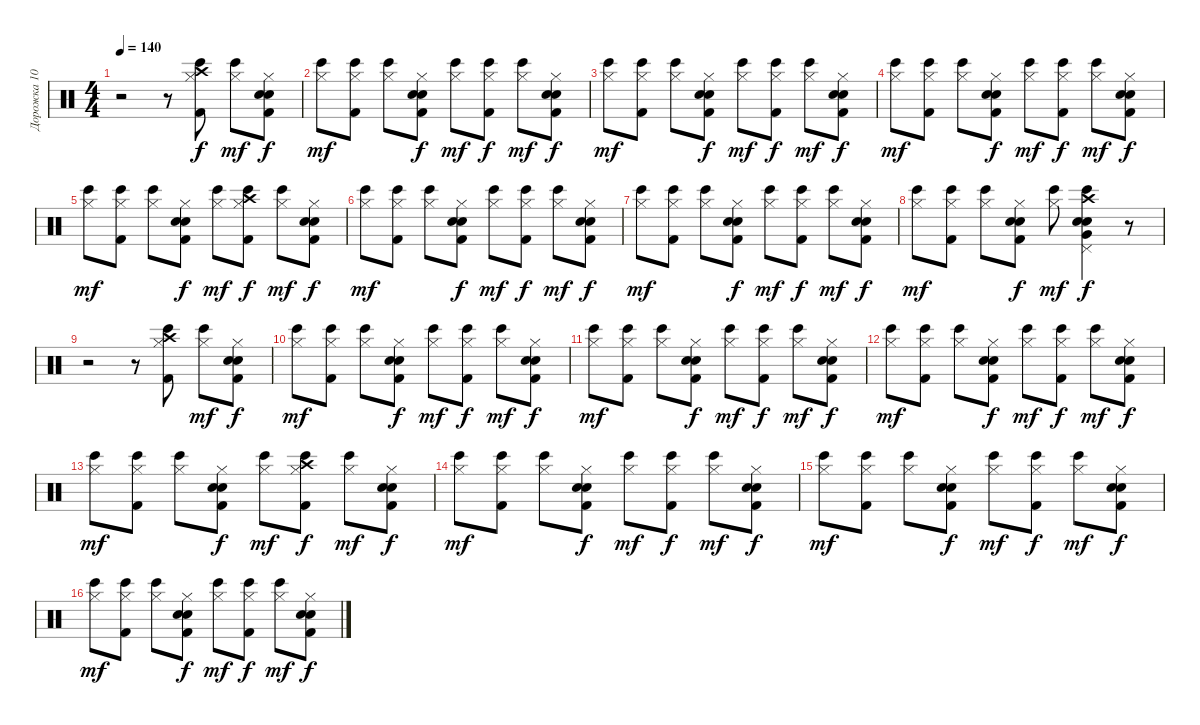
\track ("Дорожка 10" "Дорожка 10") {instrument percussion}
\staff {score}
\articulation defaults
\ts (4 4)
\tempo 140
\clef neutral
\ks c
r.2{dy f} r.8 ("Bongo High (hit)" "Hi-Hat (closed)" "Crash high (hit)" "Kick (hit) 2").8 ("Bongo High (hit)" "Hi-Hat (closed)").8{dy mf} ("Hi-Hat (closed)" "Snare (hit) 2" "Hand Clap (hit)" "Kick (hit) 2").8{dy f} |
("Hi-Hat (closed)" "Bongo High (hit)").8{dy mf} ("Hi-Hat (closed)" "Kick (hit) 2" "Bongo High (hit)").8 ("Hi-Hat (closed)" "Bongo High (hit)").8 ("Hi-Hat (closed)" "Hand Clap (hit)" "Kick (hit) 2" "Snare (hit) 2").8{dy f} ("Bongo High (hit)" "Hi-Hat (closed)").8{dy mf} ("Bongo High (hit)" "Kick (hit) 2" "Hi-Hat (closed)").8{dy f} ("Bongo High (hit)" "Hi-Hat (closed)").8{dy mf} ("Hand Clap (hit)" "Snare (hit) 2" "Kick (hit) 2" "Hi-Hat (closed)").8{dy f} |
("Hi-Hat (closed)" "Bongo High (hit)").8{dy mf} ("Kick (hit) 2" "Hi-Hat (closed)" "Bongo High (hit)").8 ("Hi-Hat (closed)" "Bongo High (hit)").8 ("Hand Clap (hit)" "Kick (hit) 2" "Snare (hit) 2" "Hi-Hat (closed)").8{dy f} ("Bongo High (hit)" "Hi-Hat (closed)").8{dy mf} ("Hi-Hat (closed)" "Bongo High (hit)" "Kick (hit) 2").8{dy f} ("Bongo High (hit)" "Hi-Hat (closed)").8{dy mf} ("Hi-Hat (closed)" "Hand Clap (hit)" "Snare (hit) 2" "Kick (hit) 2").8{dy f} |
("Hi-Hat (closed)" "Bongo High (hit)").8{dy mf} ("Hi-Hat (closed)" "Kick (hit) 2" "Bongo High (hit)").8 ("Hi-Hat (closed)" "Bongo High (hit)").8 ("Hi-Hat (closed)" "Hand Clap (hit)" "Kick (hit) 2" "Snare (hit) 2").8{dy f} ("Hi-Hat (closed)" "Bongo High (hit)").8{dy mf} ("Kick (hit) 2" "Bongo High (hit)" "Hi-Hat (closed)").8{dy f} ("Bongo High (hit)" "Hi-Hat (closed)").8{dy mf} ("Snare (hit) 2" "Kick (hit) 2" "Hand Clap (hit)" "Hi-Hat (closed)").8{dy f} |
("Hi-Hat (closed)" "Bongo High (hit)").8{dy mf} ("Kick (hit) 2" "Hi-Hat (closed)" "Bongo High (hit)").8 ("Hi-Hat (closed)" "Bongo High (hit)").8 ("Kick (hit) 2" "Snare (hit) 2" "Hand Clap (hit)" "Hi-Hat (closed)").8{dy f} ("Bongo High (hit)" "Hi-Hat (closed)").8{dy mf} ("Crash high (hit)" "Kick (hit) 2" "Bongo High (hit)" "Hi-Hat (closed)").8{dy f} ("Bongo High (hit)" "Hi-Hat (closed)").8{dy mf} ("Snare (hit) 2" "Kick (hit) 2" "Hand Clap (hit)" "Hi-Hat (closed)").8{dy f} |
("Hi-Hat (closed)" "Bongo High (hit)").8{dy mf} ("Kick (hit) 2" "Hi-Hat (closed)" "Bongo High (hit)").8 ("Hi-Hat (closed)" "Bongo High (hit)").8 ("Kick (hit) 2" "Snare (hit) 2" "Hand Clap (hit)" "Hi-Hat (closed)").8{dy f} ("Bongo High (hit)" "Hi-Hat (closed)").8{dy mf} ("Hi-Hat (closed)" "Kick (hit) 2" "Bongo High (hit)").8{dy f} ("Bongo High (hit)" "Hi-Hat (closed)").8{dy mf} ("Hi-Hat (closed)" "Snare (hit) 2" "Kick (hit) 2" "Hand Clap (hit)").8{dy f} |
("Hi-Hat (closed)" "Bongo High (hit)").8{dy mf} ("Hi-Hat (closed)" "Kick (hit) 2" "Bongo High (hit)").8 ("Hi-Hat (closed)" "Bongo High (hit)").8 ("Hi-Hat (closed)" "Kick (hit) 2" "Snare (hit) 2" "Hand Clap (hit)").8{dy f} ("Hi-Hat (closed)" "Bongo High (hit)").8{dy mf} ("Bongo High (hit)" "Kick (hit) 2" "Hi-Hat (closed)").8{dy f} ("Bongo High (hit)" "Hi-Hat (closed)").8{dy mf} ("Hand Clap (hit)" "Snare (hit) 2" "Kick (hit) 2" "Hi-Hat (closed)").8{dy f} |
("Hi-Hat (closed)" "Bongo High (hit)").8{dy mf} ("Kick (hit) 2" "Hi-Hat (closed)" "Bongo High (hit)").8 ("Hi-Hat (closed)" "Bongo High (hit)").8 ("Hand Clap (hit)" "Kick (hit) 2" "Snare (hit) 2" "Hi-Hat (closed)").8{dy f} ("Bongo High (hit)" "Hi-Hat (closed)").8{dy mf} ("Pedal Hi-Hat (hit)" "Very Low Tom (hit)" "Bongo High (hit)" "Crash high (hit)" "Electric Snare (hit)" "Snare (hit) 2").4{dy f} r.8 |
r.2 r.8 ("Bongo High (hit)" "Hi-Hat (closed)" "Crash high (hit)" "Kick (hit) 2").8 ("Bongo High (hit)" "Hi-Hat (closed)").8{dy mf} ("Hi-Hat (closed)" "Snare (hit) 2" "Hand Clap (hit)" "Kick (hit) 2").8{dy f} |
("Hi-Hat (closed)" "Bongo High (hit)").8{dy mf} ("Hi-Hat (closed)" "Kick (hit) 2" "Bongo High (hit)").8 ("Hi-Hat (closed)" "Bongo High (hit)").8 ("Hi-Hat (closed)" "Hand Clap (hit)" "Kick (hit) 2" "Snare (hit) 2").8{dy f} ("Bongo High (hit)" "Hi-Hat (closed)").8{dy mf} ("Kick (hit) 2" "Bongo High (hit)" "Hi-Hat (closed)").8{dy f} ("Bongo High (hit)" "Hi-Hat (closed)").8{dy mf} ("Snare (hit) 2" "Kick (hit) 2" "Hand Clap (hit)" "Hi-Hat (closed)").8{dy f} |
("Hi-Hat (closed)" "Bongo High (hit)").8{dy mf} ("Kick (hit) 2" "Hi-Hat (closed)" "Bongo High (hit)").8 ("Hi-Hat (closed)" "Bongo High (hit)").8 ("Kick (hit) 2" "Snare (hit) 2" "Hand Clap (hit)" "Hi-Hat (closed)").8{dy f} ("Bongo High (hit)" "Hi-Hat (closed)").8{dy mf} ("Kick (hit) 2" "Bongo High (hit)" "Hi-Hat (closed)").8{dy f} ("Bongo High (hit)" "Hi-Hat (closed)").8{dy mf} ("Snare (hit) 2" "Kick (hit) 2" "Hand Clap (hit)" "Hi-Hat (closed)").8{dy f} |
("Hi-Hat (closed)" "Bongo High (hit)").8{dy mf} ("Kick (hit) 2" "Hi-Hat (closed)" "Bongo High (hit)").8 ("Hi-Hat (closed)" "Bongo High (hit)").8 ("Kick (hit) 2" "Snare (hit) 2" "Hand Clap (hit)" "Hi-Hat (closed)").8{dy f} ("Bongo High (hit)" "Hi-Hat (closed)").8{dy mf} ("Hi-Hat (closed)" "Kick (hit) 2" "Bongo High (hit)").8{dy f} ("Bongo High (hit)" "Hi-Hat (closed)").8{dy mf} ("Hi-Hat (closed)" "Snare (hit) 2" "Kick (hit) 2" "Hand Clap (hit)").8{dy f} |
("Hi-Hat (closed)" "Bongo High (hit)").8{dy mf} ("Hi-Hat (closed)" "Kick (hit) 2" "Bongo High (hit)").8 ("Hi-Hat (closed)" "Bongo High (hit)").8 ("Hi-Hat (closed)" "Kick (hit) 2" "Snare (hit) 2" "Hand Clap (hit)").8{dy f} ("Hi-Hat (closed)" "Bongo High (hit)").8{dy mf} ("Bongo High (hit)" "Hi-Hat (closed)" "Crash high (hit)" "Kick (hit) 2").8{dy f} ("Bongo High (hit)" "Hi-Hat (closed)").8{dy mf} ("Hi-Hat (closed)" "Snare (hit) 2" "Hand Clap (hit)" "Kick (hit) 2").8{dy f} |
("Hi-Hat (closed)" "Bongo High (hit)").8{dy mf} ("Hi-Hat (closed)" "Kick (hit) 2" "Bongo High (hit)").8 ("Hi-Hat (closed)" "Bongo High (hit)").8 ("Hi-Hat (closed)" "Hand Clap (hit)" "Kick (hit) 2" "Snare (hit) 2").8{dy f} ("Bongo High (hit)" "Hi-Hat (closed)").8{dy mf} ("Kick (hit) 2" "Bongo High (hit)" "Hi-Hat (closed)").8{dy f} ("Bongo High (hit)" "Hi-Hat (closed)").8{dy mf} ("Snare (hit) 2" "Kick (hit) 2" "Hand Clap (hit)" "Hi-Hat (closed)").8{dy f} |
("Hi-Hat (closed)" "Bongo High (hit)").8{dy mf} ("Kick (hit) 2" "Hi-Hat (closed)" "Bongo High (hit)").8 ("Hi-Hat (closed)" "Bongo High (hit)").8 ("Kick (hit) 2" "Snare (hit) 2" "Hand Clap (hit)" "Hi-Hat (closed)").8{dy f} ("Bongo High (hit)" "Hi-Hat (closed)").8{dy mf} ("Bongo High (hit)" "Hi-Hat (closed)" "Kick (hit) 2").8{dy f} ("Bongo High (hit)" "Hi-Hat (closed)").8{dy mf} ("Hand Clap (hit)" "Hi-Hat (closed)" "Snare (hit) 2" "Kick (hit) 2").8{dy f} |
("Hi-Hat (closed)" "Bongo High (hit)").8{dy mf} ("Hi-Hat (closed)" "Kick (hit) 2" "Bongo High (hit)").8 ("Hi-Hat (closed)" "Bongo High (hit)").8 ("Hand Clap (hit)" "Hi-Hat (closed)" "Kick (hit) 2" "Snare (hit) 2").8{dy f} ("Bongo High (hit)" "Hi-Hat (closed)").8{dy mf} ("Hi-Hat (closed)" "Bongo High (hit)" "Kick (hit) 2").8{dy f} ("Bongo High (hit)" "Hi-Hat (closed)").8{dy mf} ("Hi-Hat (closed)" "Hand Clap (hit)" "Snare (hit) 2" "Kick (hit) 2").8{dy f}
